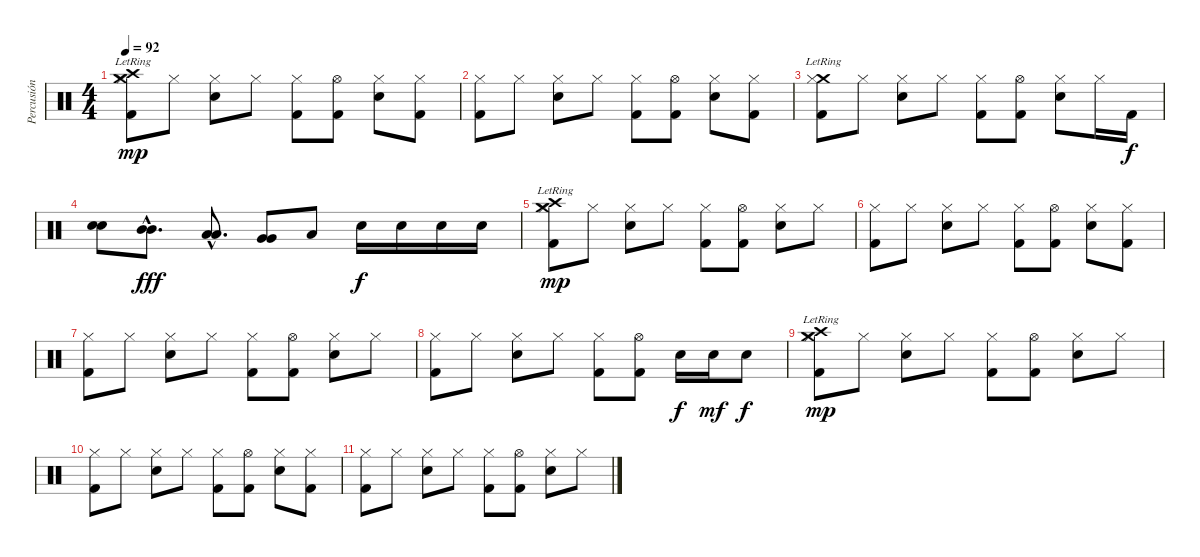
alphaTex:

\track ("Percusión" "Percusión") {instrument percussion}
\staff {score}
\articulation defaults
\ts (4 4)
\tempo 92
\clef neutral
\ks c
("Crash high (hit)"{lr} "Crash medium (hit)" "Kick (hit) 2" "Hi-Hat (closed)").8{dy mp} "Hi-Hat (closed)".8 ("Snare (hit) 2" "Hi-Hat (closed)").8 "Hi-Hat (closed)".8 ("Kick (hit) 2" "Hi-Hat (closed)").8 ("Kick (hit) 2" "Hi-Hat (open)").8 ("Snare (hit) 2" "Hi-Hat (closed)").8 ("Kick (hit) 2" "Hi-Hat (closed)").8 |
("Kick (hit) 2" "Hi-Hat (closed)").8 "Hi-Hat (closed)".8 ("Snare (hit) 2" "Hi-Hat (closed)").8 "Hi-Hat (closed)".8 ("Kick (hit) 2" "Hi-Hat (closed)").8 ("Kick (hit) 2" "Hi-Hat (open)").8 ("Snare (hit) 2" "Hi-Hat (closed)").8 ("Kick (hit) 2" "Hi-Hat (closed)").8 |
("Crash medium (hit)"{lr} "Kick (hit) 2" "Hi-Hat (closed)").8 "Hi-Hat (closed)".8 ("Snare (hit) 2" "Hi-Hat (closed)").8 "Hi-Hat (closed)".8 ("Kick (hit) 2" "Hi-Hat (closed)").8 ("Kick (hit) 2" "Hi-Hat (open)").8 ("Snare (hit) 2" "Hi-Hat (closed)").8 "Hi-Hat (closed)".16 "Kick (hit) 2".16{dy f} |
("Snare (hit) 2" "Snare (hit) 2").8{bd 240} ("Mid Tom (hit)"{hac} "Mid Tom (hit)"{hac}).8{d bd 240 dy fff volume 15} ("Low Tom (hit)"{hac} "Low Tom (hit)"{hac}).8{d bd 240} ("Very Low Tom (hit)" "Very Low Tom (hit)").8{bd 240} "Low Floor Tom (hit)".8{volume 12} "Snare (hit) 2".16{dy f} "Snare (hit) 2".16 "Snare (hit) 2".16 "Snare (hit) 2".16 |
("Crash high (hit)"{lr} "Crash medium (hit)" "Kick (hit) 2" "Hi-Hat (closed)").8{dy mp volume 11} "Hi-Hat (closed)".8 ("Snare (hit) 2" "Hi-Hat (closed)").8 "Hi-Hat (closed)".8 ("Kick (hit) 2" "Hi-Hat (closed)").8 ("Kick (hit) 2" "Hi-Hat (open)").8 ("Snare (hit) 2" "Hi-Hat (closed)").8 "Hi-Hat (closed)".8 |
("Kick (hit) 2" "Hi-Hat (closed)").8{volume 10} "Hi-Hat (closed)".8 ("Snare (hit) 2" "Hi-Hat (closed)").8 "Hi-Hat (closed)".8 ("Kick (hit) 2" "Hi-Hat (closed)").8 ("Kick (hit) 2" "Hi-Hat (open)").8 ("Snare (hit) 2" "Hi-Hat (closed)").8 ("Kick (hit) 2" "Hi-Hat (closed)").8 |
("Kick (hit) 2" "Hi-Hat (closed)").8{volume 9} "Hi-Hat (closed)".8 ("Snare (hit) 2" "Hi-Hat (closed)").8 "Hi-Hat (closed)".8 ("Kick (hit) 2" "Hi-Hat (closed)").8 ("Kick (hit) 2" "Hi-Hat (open)").8 ("Snare (hit) 2" "Hi-Hat (closed)").8 "Hi-Hat (closed)".8 |
("Kick (hit) 2" "Hi-Hat (closed)").8{volume 8} "Hi-Hat (closed)".8 ("Snare (hit) 2" "Hi-Hat (closed)").8 "Hi-Hat (closed)".8 ("Kick (hit) 2" "Hi-Hat (closed)").8 ("Kick (hit) 2" "Hi-Hat (open)").8 "Snare (hit) 2".16{dy f} "Snare (hit) 2".16{dy mf} "Snare (hit) 2".8{dy f} |
("Crash high (hit)"{lr} "Crash medium (hit)" "Kick (hit) 2" "Hi-Hat (closed)").8{dy mp volume 7} "Hi-Hat (closed)".8 ("Snare (hit) 2" "Hi-Hat (closed)").8 "Hi-Hat (closed)".8 ("Kick (hit) 2" "Hi-Hat (closed)").8 ("Kick (hit) 2" "Hi-Hat (open)").8 ("Snare (hit) 2" "Hi-Hat (closed)").8 "Hi-Hat (closed)".8 |
("Kick (hit) 2" "Hi-Hat (closed)").8{volume 6} "Hi-Hat (closed)".8 ("Snare (hit) 2" "Hi-Hat (closed)").8 "Hi-Hat (closed)".8 ("Kick (hit) 2" "Hi-Hat (closed)").8{volume 4} ("Kick (hit) 2" "Hi-Hat (open)").8 ("Snare (hit) 2" "Hi-Hat (closed)").8 ("Kick (hit) 2" "Hi-Hat (closed)").8 |
("Kick (hit) 2" "Hi-Hat (closed)").8{volume 2} "Hi-Hat (closed)".8 ("Snare (hit) 2" "Hi-Hat (closed)").8 "Hi-Hat (closed)".8 ("Kick (hit) 2" "Hi-Hat (closed)").8{volume 1} ("Kick (hit) 2" "Hi-Hat (open)").8 ("Snare (hit) 2" "Hi-Hat (closed)").8 "Hi-Hat (closed)".8
